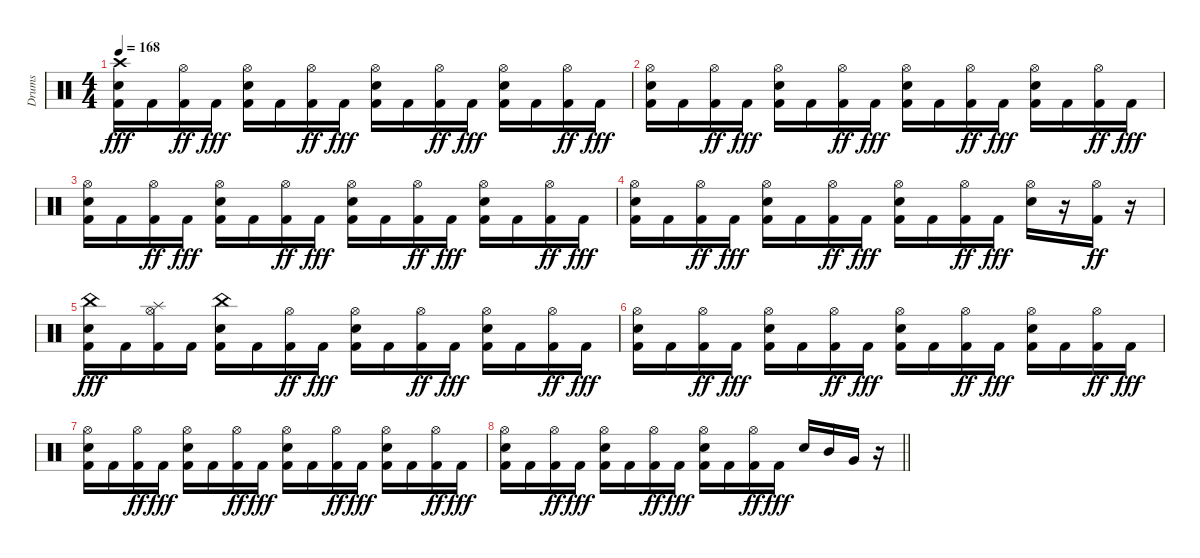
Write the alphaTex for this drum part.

\track ("Drums" "Drums") {instrument percussion}
\staff {score}
\articulation defaults
\ts (4 4)
\tempo 168
\clef neutral
\ks c
("Kick (hit) 2" "Snare (hit) 2" "Crash high (hit)").16{dy fff} "Kick (hit) 2".16 ("Kick (hit) 2" "Hi-Hat (open)").16{dy ff} "Kick (hit) 2".16{dy fff} ("Kick (hit) 2" "Snare (hit) 2" "Hi-Hat (open)").16 "Kick (hit) 2".16 ("Kick (hit) 2" "Hi-Hat (open)").16{dy ff} "Kick (hit) 2".16{dy fff} ("Kick (hit) 2" "Snare (hit) 2" "Hi-Hat (open)").16 "Kick (hit) 2".16 ("Kick (hit) 2" "Hi-Hat (open)").16{dy ff} "Kick (hit) 2".16{dy fff} ("Kick (hit) 2" "Snare (hit) 2" "Hi-Hat (open)").16 "Kick (hit) 2".16 ("Kick (hit) 2" "Hi-Hat (open)").16{dy ff} "Kick (hit) 2".16{dy fff} |
("Kick (hit) 2" "Snare (hit) 2" "Hi-Hat (open)").16 "Kick (hit) 2".16 ("Kick (hit) 2" "Hi-Hat (open)").16{dy ff} "Kick (hit) 2".16{dy fff} ("Kick (hit) 2" "Snare (hit) 2" "Hi-Hat (open)").16 "Kick (hit) 2".16 ("Kick (hit) 2" "Hi-Hat (open)").16{dy ff} "Kick (hit) 2".16{dy fff} ("Kick (hit) 2" "Snare (hit) 2" "Hi-Hat (open)").16 "Kick (hit) 2".16 ("Kick (hit) 2" "Hi-Hat (open)").16{dy ff} "Kick (hit) 2".16{dy fff} ("Kick (hit) 2" "Snare (hit) 2" "Hi-Hat (open)").16 "Kick (hit) 2".16 ("Kick (hit) 2" "Hi-Hat (open)").16{dy ff} "Kick (hit) 2".16{dy fff} |
("Kick (hit) 2" "Snare (hit) 2" "Hi-Hat (open)").16 "Kick (hit) 2".16 ("Kick (hit) 2" "Hi-Hat (open)").16{dy ff} "Kick (hit) 2".16{dy fff} ("Kick (hit) 2" "Snare (hit) 2" "Hi-Hat (open)").16 "Kick (hit) 2".16 ("Kick (hit) 2" "Hi-Hat (open)").16{dy ff} "Kick (hit) 2".16{dy fff} ("Kick (hit) 2" "Snare (hit) 2" "Hi-Hat (open)").16 "Kick (hit) 2".16 ("Kick (hit) 2" "Hi-Hat (open)").16{dy ff} "Kick (hit) 2".16{dy fff} ("Kick (hit) 2" "Snare (hit) 2" "Hi-Hat (open)").16 "Kick (hit) 2".16 ("Kick (hit) 2" "Hi-Hat (open)").16{dy ff} "Kick (hit) 2".16{dy fff} |
("Kick (hit) 2" "Snare (hit) 2" "Hi-Hat (open)").16 "Kick (hit) 2".16 ("Kick (hit) 2" "Hi-Hat (open)").16{dy ff} "Kick (hit) 2".16{dy fff} ("Kick (hit) 2" "Snare (hit) 2" "Hi-Hat (open)").16 "Kick (hit) 2".16 ("Kick (hit) 2" "Hi-Hat (open)").16{dy ff} "Kick (hit) 2".16{dy fff} ("Kick (hit) 2" "Snare (hit) 2" "Hi-Hat (open)").16 "Kick (hit) 2".16 ("Kick (hit) 2" "Hi-Hat (open)").16{dy ff} "Kick (hit) 2".16{dy fff} ("Snare (hit) 2" "Hi-Hat (open)").16 r.16 ("Kick (hit) 2" "Hi-Hat (open)").16{dy ff} r.16 |
("Kick (hit) 2" "Snare (hit) 2" "China (hit)").16{dy fff} "Kick (hit) 2".16 ("Kick (hit) 2" "Hi-Hat (open)" "Splash (hit)").16 "Kick (hit) 2".16 ("Kick (hit) 2" "Snare (hit) 2" "China (hit)").16 "Kick (hit) 2".16 ("Kick (hit) 2" "Hi-Hat (open)").16{dy ff} "Kick (hit) 2".16{dy fff} ("Kick (hit) 2" "Snare (hit) 2" "Hi-Hat (open)").16 "Kick (hit) 2".16 ("Kick (hit) 2" "Hi-Hat (open)").16{dy ff} "Kick (hit) 2".16{dy fff} ("Kick (hit) 2" "Snare (hit) 2" "Hi-Hat (open)").16 "Kick (hit) 2".16 ("Kick (hit) 2" "Hi-Hat (open)").16{dy ff} "Kick (hit) 2".16{dy fff} |
("Kick (hit) 2" "Snare (hit) 2" "Hi-Hat (open)").16 "Kick (hit) 2".16 ("Kick (hit) 2" "Hi-Hat (open)").16{dy ff} "Kick (hit) 2".16{dy fff} ("Kick (hit) 2" "Snare (hit) 2" "Hi-Hat (open)").16 "Kick (hit) 2".16 ("Kick (hit) 2" "Hi-Hat (open)").16{dy ff} "Kick (hit) 2".16{dy fff} ("Kick (hit) 2" "Snare (hit) 2" "Hi-Hat (open)").16 "Kick (hit) 2".16 ("Kick (hit) 2" "Hi-Hat (open)").16{dy ff} "Kick (hit) 2".16{dy fff} ("Kick (hit) 2" "Snare (hit) 2" "Hi-Hat (open)").16 "Kick (hit) 2".16 ("Kick (hit) 2" "Hi-Hat (open)").16{dy ff} "Kick (hit) 2".16{dy fff} |
("Kick (hit) 2" "Snare (hit) 2" "Hi-Hat (open)").16 "Kick (hit) 2".16 ("Kick (hit) 2" "Hi-Hat (open)").16{dy ff} "Kick (hit) 2".16{dy fff} ("Kick (hit) 2" "Snare (hit) 2" "Hi-Hat (open)").16 "Kick (hit) 2".16 ("Kick (hit) 2" "Hi-Hat (open)").16{dy ff} "Kick (hit) 2".16{dy fff} ("Kick (hit) 2" "Snare (hit) 2" "Hi-Hat (open)").16 "Kick (hit) 2".16 ("Kick (hit) 2" "Hi-Hat (open)").16{dy ff} "Kick (hit) 2".16{dy fff} ("Kick (hit) 2" "Snare (hit) 2" "Hi-Hat (open)").16 "Kick (hit) 2".16 ("Kick (hit) 2" "Hi-Hat (open)").16{dy ff} "Kick (hit) 2".16{dy fff} |
\barLineRight lightlight
("Kick (hit) 2" "Snare (hit) 2" "Hi-Hat (open)").16 "Kick (hit) 2".16 ("Kick (hit) 2" "Hi-Hat (open)").16{dy ff} "Kick (hit) 2".16{dy fff} ("Kick (hit) 2" "Snare (hit) 2" "Hi-Hat (open)").16 "Kick (hit) 2".16 ("Kick (hit) 2" "Hi-Hat (open)").16{dy ff} "Kick (hit) 2".16{dy fff} ("Kick (hit) 2" "Snare (hit) 2" "Hi-Hat (open)").16 "Kick (hit) 2".16 ("Kick (hit) 2" "Hi-Hat (open)").16{dy ff} "Kick (hit) 2".16{dy fff} "Snare (hit) 2".16 "Mid Tom (hit)".16 "Very Low Tom (hit)".16 r.16
